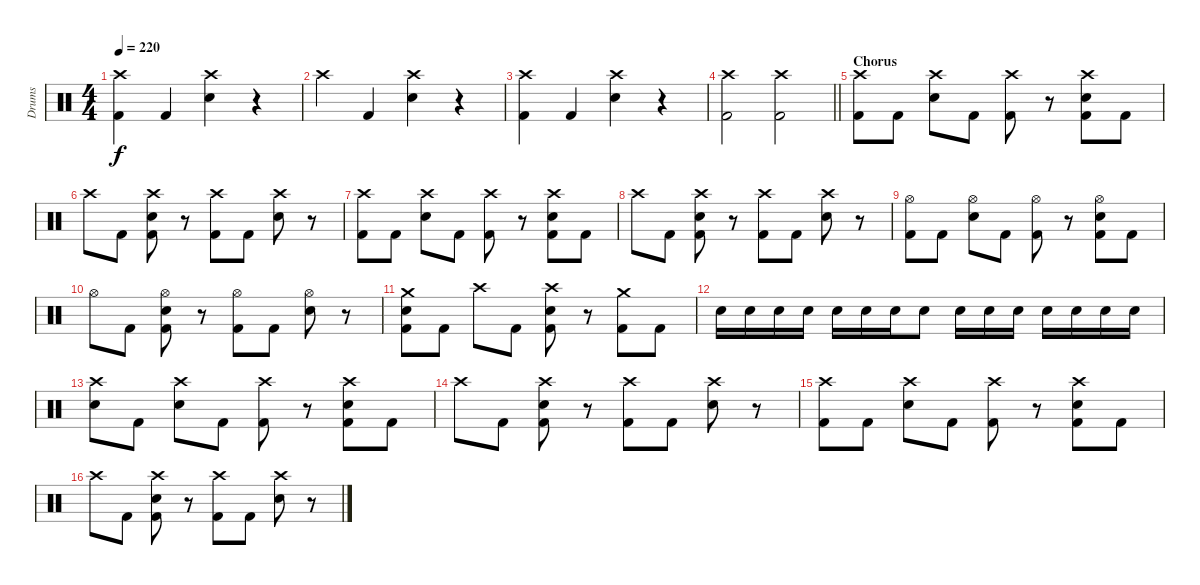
\track ("Drums" "Drums") {instrument percussion}
\staff {score}
\articulation defaults
\ts (4 4)
\tempo 220
\clef neutral
\ks c
("Crash high (hit)" "Kick (hit) 2").4{dy f} "Kick (hit) 2".4 ("Crash high (hit)" "Electric Snare (hit)").4 r.4 |
"Crash high (hit)".4 "Kick (hit) 2".4 ("Crash high (hit)" "Electric Snare (hit)").4 r.4 |
("Crash high (hit)" "Kick (hit) 2").4 "Kick (hit) 2".4 ("Crash high (hit)" "Electric Snare (hit)").4 r.4 |
\barLineRight lightlight
("Crash high (hit)" "Kick (hit) 2").2 ("Crash high (hit)" "Kick (hit) 2").2 |
\section ("" "Chorus")
("Crash high (hit)" "Kick (hit) 2").8 "Kick (hit) 2".8 ("Crash high (hit)" "Electric Snare (hit)").8 "Kick (hit) 2".8 ("Crash high (hit)" "Kick (hit) 2").8 r.8 ("Crash high (hit)" "Electric Snare (hit)" "Kick (hit) 2").8 "Kick (hit) 2".8 |
"Crash high (hit)".8 "Kick (hit) 2".8 ("Crash high (hit)" "Electric Snare (hit)" "Kick (hit) 2").8 r.8 ("Crash high (hit)" "Kick (hit) 2").8 "Kick (hit) 2".8 ("Crash high (hit)" "Electric Snare (hit)").8 r.8 |
("Crash high (hit)" "Kick (hit) 2").8 "Kick (hit) 2".8 ("Crash high (hit)" "Electric Snare (hit)").8 "Kick (hit) 2".8 ("Crash high (hit)" "Kick (hit) 2").8 r.8 ("Crash high (hit)" "Electric Snare (hit)" "Kick (hit) 2").8 "Kick (hit) 2".8 |
"Crash high (hit)".8 "Kick (hit) 2".8 ("Crash high (hit)" "Electric Snare (hit)" "Kick (hit) 2").8 r.8 ("Crash high (hit)" "Kick (hit) 2").8 "Kick (hit) 2".8 ("Crash high (hit)" "Electric Snare (hit)").8 r.8 |
("Hi-Hat (open)" "Kick (hit) 2").8 "Kick (hit) 2".8 ("Hi-Hat (open)" "Electric Snare (hit)").8 "Kick (hit) 2".8 ("Hi-Hat (open)" "Kick (hit) 2").8 r.8 ("Hi-Hat (open)" "Electric Snare (hit)" "Kick (hit) 2").8 "Kick (hit) 2".8 |
"Hi-Hat (open)".8 "Kick (hit) 2".8 ("Hi-Hat (open)" "Electric Snare (hit)" "Kick (hit) 2").8 r.8 ("Hi-Hat (open)" "Kick (hit) 2").8 "Kick (hit) 2".8 ("Hi-Hat (open)" "Electric Snare (hit)").8 r.8 |
("Crash medium (hit)" "Electric Snare (hit)" "Kick (hit) 2").8 "Kick (hit) 2".8 "Crash high (hit)".8 "Kick (hit) 2".8 ("Crash high (hit)" "Electric Snare (hit)" "Kick (hit) 2").8 r.8 ("Crash medium (hit)" "Kick (hit) 2").8 "Kick (hit) 2".8 |
"Electric Snare (hit)".16 "Electric Snare (hit)".16 "Electric Snare (hit)".16 "Electric Snare (hit)".16 "Electric Snare (hit)".16 "Electric Snare (hit)".16 "Electric Snare (hit)".16 "Electric Snare (hit)".8 "Electric Snare (hit)".16 "Electric Snare (hit)".16 "Electric Snare (hit)".16 "Electric Snare (hit)".16 "Electric Snare (hit)".16 "Electric Snare (hit)".16 "Electric Snare (hit)".16 |
("Crash high (hit)" "Electric Snare (hit)").8 "Kick (hit) 2".8 ("Crash high (hit)" "Electric Snare (hit)").8 "Kick (hit) 2".8 ("Crash high (hit)" "Kick (hit) 2").8 r.8 ("Crash high (hit)" "Electric Snare (hit)" "Kick (hit) 2").8 "Kick (hit) 2".8 |
"Crash high (hit)".8 "Kick (hit) 2".8 ("Crash high (hit)" "Electric Snare (hit)" "Kick (hit) 2").8 r.8 ("Crash high (hit)" "Kick (hit) 2").8 "Kick (hit) 2".8 ("Crash high (hit)" "Electric Snare (hit)").8 r.8 |
("Crash high (hit)" "Kick (hit) 2").8 "Kick (hit) 2".8 ("Crash high (hit)" "Electric Snare (hit)").8 "Kick (hit) 2".8 ("Crash high (hit)" "Kick (hit) 2").8 r.8 ("Crash high (hit)" "Electric Snare (hit)" "Kick (hit) 2").8 "Kick (hit) 2".8 |
"Crash high (hit)".8 "Kick (hit) 2".8 ("Crash high (hit)" "Electric Snare (hit)" "Kick (hit) 2").8 r.8 ("Crash high (hit)" "Kick (hit) 2").8 "Kick (hit) 2".8 ("Crash high (hit)" "Electric Snare (hit)").8 r.8
